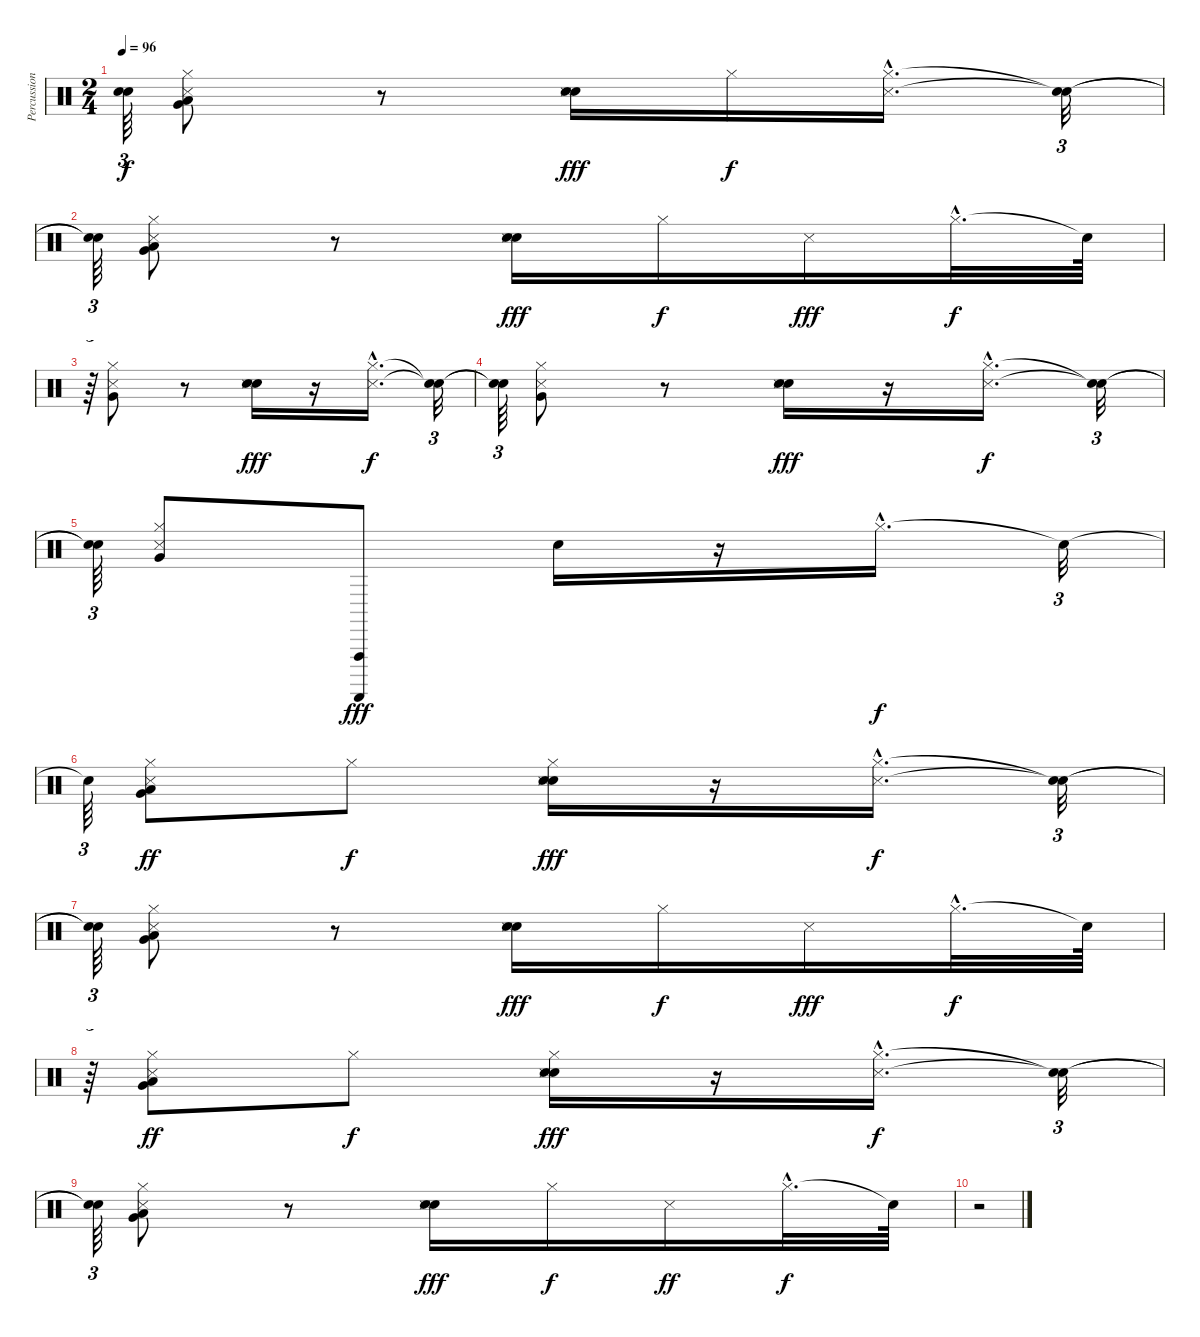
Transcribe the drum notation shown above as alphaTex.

\track ("Percussion" "Percussion") {instrument percussion}
\staff {score}
\articulation defaults
\ts (2 4)
\tempo 96
\clef neutral
\ks c
("Snare (hit)"{t} "Snare (hit)"{t}).64{tu (3 2) dy f} ("Hi-Hat (closed)" "Snare (side stick) 3" "Very Low Tom (hit)" "Low Floor Tom (hit)").8 r.8 ("Electric Snare (hit)" "Snare (side stick) 3" "Snare (hit) 2").16{dy fff} "Hi-Hat (closed)".16{dy f} ("Hi-Hat (closed)"{hac} "Snare (side stick) 3"{hac}).16{d} ("Snare (hit)"{t} "Snare (hit)"{t}).32{tu (3 2)} |
("Snare (hit)"{t} "Snare (hit)"{t}).64{tu (3 2)} ("Hi-Hat (closed)" "Snare (side stick) 3" "Very Low Tom (hit)" "Low Floor Tom (hit)").8 r.8 ("Electric Snare (hit)" "Snare (side stick) 3" "Snare (hit) 2").16{dy fff} "Hi-Hat (closed)".16{dy f} "Snare (side stick) 3".16{dy fff} "Hi-Hat (closed)"{hac}.32{d dy f} "Snare (hit)"{t}.64 |
r.64{tu (3 2)} ("Hi-Hat (closed)" "Snare (side stick) 3" "Very Low Tom (hit)").8 r.8 ("Electric Snare (hit)" "Snare (side stick) 3" "Snare (hit) 2").16{dy fff} r.16 ("Hi-Hat (closed)"{hac} "Snare (side stick) 3"{hac}).16{d dy f} ("Snare (hit)"{t} "Snare (hit)"{t}).32{tu (3 2)} |
("Snare (hit)"{t} "Snare (hit)"{t}).64{tu (3 2)} ("Hi-Hat (closed)" "Snare (side stick) 3" "Very Low Tom (hit)").8 r.8 ("Electric Snare (hit)" "Snare (side stick) 3" "Snare (hit) 2").16{dy fff} r.16 ("Hi-Hat (closed)"{hac} "Snare (side stick) 3"{hac}).16{d dy f} ("Snare (hit)"{t} "Snare (hit)"{t}).32{tu (3 2)} |
("Snare (hit)"{t} "Snare (hit)"{t}).64{tu (3 2)} ("Hi-Hat (closed)" "Snare (side stick) 3" "Very Low Tom (hit)").8 ("Guiro (scrap-return)" "Vibraslap (hit)").8{dy fff} "Snare (hit) 2".16 r.16 "Hi-Hat (closed)"{hac}.16{d dy f} "Snare (hit)"{t}.32{tu (3 2)} |
"Snare (hit)"{t}.64{tu (3 2)} ("Hi-Hat (closed)" "Snare (side stick) 3" "Very Low Tom (hit)" "Low Floor Tom (hit)").8{dy ff volume 16} "Hi-Hat (closed)".8{dy f volume 14} ("Hi-Hat (closed)" "Electric Snare (hit)" "Snare (side stick) 3" "Snare (hit) 2").16{dy fff volume 14} r.16 ("Hi-Hat (closed)"{hac} "Snare (side stick) 3"{hac}).16{d dy f volume 13} ("Snare (hit)"{t} "Snare (hit)"{t}).32{tu (3 2)} |
("Snare (hit)"{t} "Snare (hit)"{t}).64{tu (3 2)} ("Hi-Hat (closed)" "Snare (side stick) 3" "Very Low Tom (hit)" "Low Floor Tom (hit)").8{volume 12} r.8 ("Electric Snare (hit)" "Snare (side stick) 3" "Snare (hit) 2").16{dy fff volume 10} "Hi-Hat (closed)".16{dy f volume 9} "Snare (side stick) 3".16{dy fff volume 9} "Hi-Hat (closed)"{hac}.32{d dy f volume 8} "Snare (hit)"{t}.64 |
r.64{tu (3 2)} ("Hi-Hat (closed)" "Snare (side stick) 3" "Very Low Tom (hit)" "Low Floor Tom (hit)").8{dy ff volume 8} "Hi-Hat (closed)".8{dy f volume 7} ("Hi-Hat (closed)" "Electric Snare (hit)" "Snare (side stick) 3" "Snare (hit) 2").16{dy fff volume 6} r.16 ("Hi-Hat (closed)"{hac} "Snare (side stick) 3"{hac}).16{d dy f volume 5} ("Snare (hit)"{t} "Snare (hit)"{t}).32{tu (3 2)} |
("Snare (hit)"{t} "Snare (hit)"{t}).64{tu (3 2)} ("Hi-Hat (closed)" "Snare (side stick) 3" "Very Low Tom (hit)" "Low Floor Tom (hit)").8{volume 4} r.8 ("Electric Snare (hit)" "Snare (side stick) 3" "Snare (hit) 2").16{dy fff volume 2} "Hi-Hat (closed)".16{dy f volume 2} "Snare (side stick) 3".16{dy ff volume 1} "Hi-Hat (closed)"{hac}.32{d dy f volume 0} "Snare (hit)"{t}.64 |
r.2
